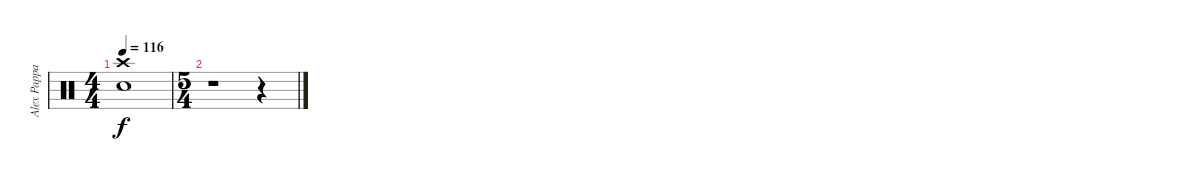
\track ("Alex Pappas" "Alex Pappa") {instrument percussion}
\staff {score}
\articulation defaults
\ts (4 4)
\tempo 116
\clef neutral
\ks c
("Crash high (hit)" "Electric Snare (hit)").1{dy f} |
\ts (5 4)
r.1 r.4
